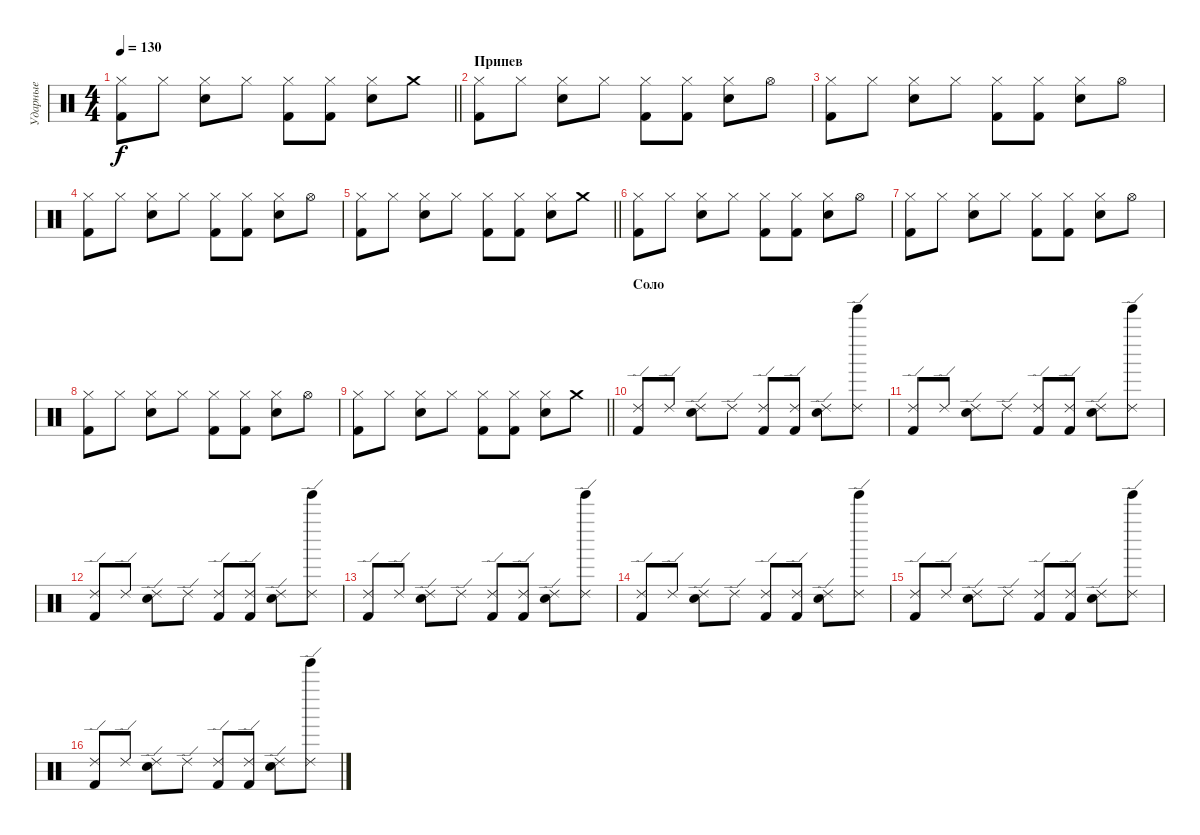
\track ("Ударные" "Ударные") {instrument percussion}
\staff {score}
\articulation defaults
\ts (4 4)
\tempo 130
\clef neutral
\barLineRight lightlight
\ks c
("Hi-Hat (closed)" "Kick (hit) 2").8{dy f} "Hi-Hat (closed)".8 ("Hi-Hat (closed)" "Electric Snare (hit)").8 "Hi-Hat (closed)".8 ("Hi-Hat (closed)" "Kick (hit) 2").8 ("Hi-Hat (closed)" "Kick (hit) 2").8 ("Hi-Hat (closed)" "Electric Snare (hit)").8 "Crash medium (hit)".8 |
\section ("" "Припев")
("Hi-Hat (closed)" "Kick (hit) 2").8 "Hi-Hat (closed)".8 ("Hi-Hat (closed)" "Electric Snare (hit)").8 "Hi-Hat (closed)".8 ("Hi-Hat (closed)" "Kick (hit) 2").8 ("Hi-Hat (closed)" "Kick (hit) 2").8 ("Hi-Hat (closed)" "Electric Snare (hit)").8 "Hi-Hat (open)".8 |
("Hi-Hat (closed)" "Kick (hit) 2").8 "Hi-Hat (closed)".8 ("Hi-Hat (closed)" "Electric Snare (hit)").8 "Hi-Hat (closed)".8 ("Hi-Hat (closed)" "Kick (hit) 2").8 ("Hi-Hat (closed)" "Kick (hit) 2").8 ("Hi-Hat (closed)" "Electric Snare (hit)").8 "Hi-Hat (open)".8 |
("Hi-Hat (closed)" "Kick (hit) 2").8 "Hi-Hat (closed)".8 ("Hi-Hat (closed)" "Electric Snare (hit)").8 "Hi-Hat (closed)".8 ("Hi-Hat (closed)" "Kick (hit) 2").8 ("Hi-Hat (closed)" "Kick (hit) 2").8 ("Hi-Hat (closed)" "Electric Snare (hit)").8 "Hi-Hat (open)".8 |
\barLineRight lightlight
("Hi-Hat (closed)" "Kick (hit) 2").8 "Hi-Hat (closed)".8 ("Hi-Hat (closed)" "Electric Snare (hit)").8 "Hi-Hat (closed)".8 ("Hi-Hat (closed)" "Kick (hit) 2").8 ("Hi-Hat (closed)" "Kick (hit) 2").8 ("Hi-Hat (closed)" "Electric Snare (hit)").8 "Crash medium (hit)".8 |
("Hi-Hat (closed)" "Kick (hit) 2").8 "Hi-Hat (closed)".8 ("Hi-Hat (closed)" "Electric Snare (hit)").8 "Hi-Hat (closed)".8 ("Hi-Hat (closed)" "Kick (hit) 2").8 ("Hi-Hat (closed)" "Kick (hit) 2").8 ("Hi-Hat (closed)" "Electric Snare (hit)").8 "Hi-Hat (open)".8 |
("Hi-Hat (closed)" "Kick (hit) 2").8 "Hi-Hat (closed)".8 ("Hi-Hat (closed)" "Electric Snare (hit)").8 "Hi-Hat (closed)".8 ("Hi-Hat (closed)" "Kick (hit) 2").8 ("Hi-Hat (closed)" "Kick (hit) 2").8 ("Hi-Hat (closed)" "Electric Snare (hit)").8 "Hi-Hat (open)".8 |
("Hi-Hat (closed)" "Kick (hit) 2").8 "Hi-Hat (closed)".8 ("Hi-Hat (closed)" "Electric Snare (hit)").8 "Hi-Hat (closed)".8 ("Hi-Hat (closed)" "Kick (hit) 2").8 ("Hi-Hat (closed)" "Kick (hit) 2").8 ("Hi-Hat (closed)" "Electric Snare (hit)").8 "Hi-Hat (open)".8 |
\barLineRight lightlight
("Hi-Hat (closed)" "Kick (hit) 2").8 "Hi-Hat (closed)".8 ("Hi-Hat (closed)" "Electric Snare (hit)").8 "Hi-Hat (closed)".8 ("Hi-Hat (closed)" "Kick (hit) 2").8 ("Hi-Hat (closed)" "Kick (hit) 2").8 ("Hi-Hat (closed)" "Electric Snare (hit)").8 "Crash medium (hit)".8 |
\section ("" "Соло")
("Ride (edge) 2" "Kick (hit) 2").8 "Ride (edge) 2".8 ("Ride (edge) 2" "Electric Snare (hit)").8 "Ride (edge) 2".8 ("Ride (edge) 2" "Kick (hit) 2").8 ("Ride (edge) 2" "Kick (hit) 2").8 ("Ride (edge) 2" "Electric Snare (hit)").8 ("Ride (edge) 2" "Tinkle Bell (hit)").8 |
("Ride (edge) 2" "Kick (hit) 2").8 "Ride (edge) 2".8 ("Ride (edge) 2" "Electric Snare (hit)").8 "Ride (edge) 2".8 ("Ride (edge) 2" "Kick (hit) 2").8 ("Ride (edge) 2" "Kick (hit) 2").8 ("Ride (edge) 2" "Electric Snare (hit)").8 ("Ride (edge) 2" "Tinkle Bell (hit)").8 |
("Ride (edge) 2" "Kick (hit) 2").8 "Ride (edge) 2".8 ("Ride (edge) 2" "Electric Snare (hit)").8 "Ride (edge) 2".8 ("Ride (edge) 2" "Kick (hit) 2").8 ("Ride (edge) 2" "Kick (hit) 2").8 ("Ride (edge) 2" "Electric Snare (hit)").8 ("Ride (edge) 2" "Tinkle Bell (hit)").8 |
("Ride (edge) 2" "Kick (hit) 2").8 "Ride (edge) 2".8 ("Ride (edge) 2" "Electric Snare (hit)").8 "Ride (edge) 2".8 ("Ride (edge) 2" "Kick (hit) 2").8 ("Ride (edge) 2" "Kick (hit) 2").8 ("Ride (edge) 2" "Electric Snare (hit)").8 ("Ride (edge) 2" "Tinkle Bell (hit)").8 |
("Ride (edge) 2" "Kick (hit) 2").8 "Ride (edge) 2".8 ("Ride (edge) 2" "Electric Snare (hit)").8 "Ride (edge) 2".8 ("Ride (edge) 2" "Kick (hit) 2").8 ("Ride (edge) 2" "Kick (hit) 2").8 ("Ride (edge) 2" "Electric Snare (hit)").8 ("Ride (edge) 2" "Tinkle Bell (hit)").8 |
("Ride (edge) 2" "Kick (hit) 2").8 "Ride (edge) 2".8 ("Ride (edge) 2" "Electric Snare (hit)").8 "Ride (edge) 2".8 ("Ride (edge) 2" "Kick (hit) 2").8 ("Ride (edge) 2" "Kick (hit) 2").8 ("Ride (edge) 2" "Electric Snare (hit)").8 ("Ride (edge) 2" "Tinkle Bell (hit)").8 |
("Ride (edge) 2" "Kick (hit) 2").8 "Ride (edge) 2".8 ("Ride (edge) 2" "Electric Snare (hit)").8 "Ride (edge) 2".8 ("Ride (edge) 2" "Kick (hit) 2").8 ("Ride (edge) 2" "Kick (hit) 2").8 ("Ride (edge) 2" "Electric Snare (hit)").8 ("Ride (edge) 2" "Tinkle Bell (hit)").8
